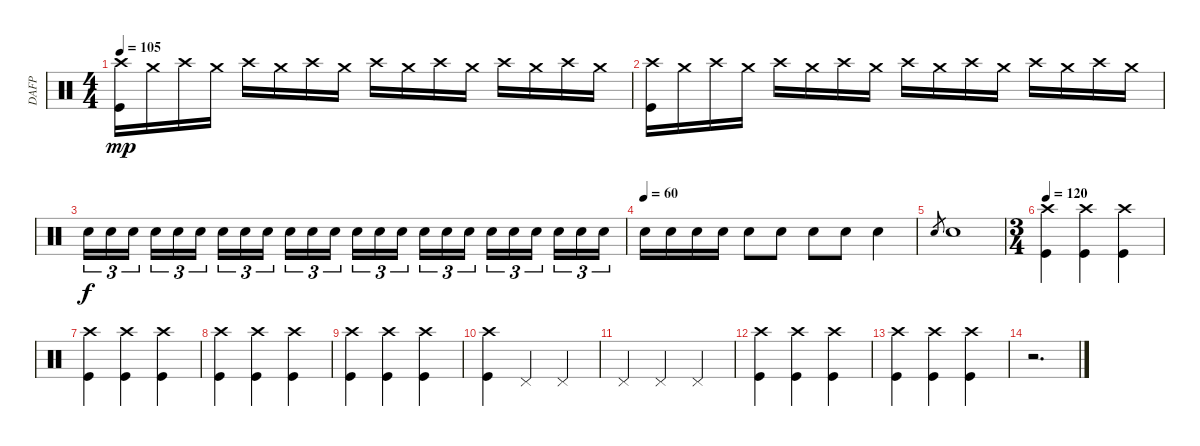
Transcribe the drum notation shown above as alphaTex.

\track ("DAFP" "DAFP") {instrument percussion}
\staff {score}
\articulation defaults
\ts (4 4)
\tempo 105
\clef neutral
\ks c
("Kick (hit)" "Crash high (hit)").16{dy mp} "Crash medium (hit)".16 "Crash high (hit)".16 "Crash medium (hit)".16 "Crash high (hit)".16 "Crash medium (hit)".16 "Crash high (hit)".16 "Crash medium (hit)".16 "Crash high (hit)".16 "Crash medium (hit)".16 "Crash high (hit)".16 "Crash medium (hit)".16 "Crash high (hit)".16 "Crash medium (hit)".16 "Crash high (hit)".16 "Crash medium (hit)".16 |
("Kick (hit)" "Crash high (hit)").16 "Crash medium (hit)".16 "Crash high (hit)".16 "Crash medium (hit)".16 "Crash high (hit)".16 "Crash medium (hit)".16 "Crash high (hit)".16 "Crash medium (hit)".16 "Crash high (hit)".16 "Crash medium (hit)".16 "Crash high (hit)".16 "Crash medium (hit)".16 "Crash high (hit)".16 "Crash medium (hit)".16 "Crash high (hit)".16 "Crash medium (hit)".16 |
"Snare (hit) 2".16{tu (3 2) dy f} "Snare (hit) 2".16{tu (3 2)} "Snare (hit) 2".16{tu (3 2) beam splitsecondary} "Snare (hit) 2".16{tu (3 2)} "Snare (hit) 2".16{tu (3 2)} "Snare (hit) 2".16{tu (3 2)} "Snare (hit) 2".16{tu (3 2)} "Snare (hit) 2".16{tu (3 2)} "Snare (hit) 2".16{tu (3 2) beam splitsecondary} "Snare (hit) 2".16{tu (3 2)} "Snare (hit) 2".16{tu (3 2)} "Snare (hit) 2".16{tu (3 2)} "Snare (hit) 2".16{tu (3 2)} "Snare (hit) 2".16{tu (3 2)} "Snare (hit) 2".16{tu (3 2) beam splitsecondary} "Snare (hit) 2".16{tu (3 2)} "Snare (hit) 2".16{tu (3 2)} "Snare (hit) 2".16{tu (3 2)} "Snare (hit) 2".16{tu (3 2)} "Snare (hit) 2".16{tu (3 2)} "Snare (hit) 2".16{tu (3 2) beam splitsecondary} "Snare (hit) 2".16{tu (3 2)} "Snare (hit) 2".16{tu (3 2)} "Snare (hit) 2".16{tu (3 2)} |
\tempo (60)
"Snare (hit) 2".16 "Snare (hit) 2".16 "Snare (hit) 2".16 "Snare (hit) 2".16 "Snare (hit) 2".8 "Snare (hit) 2".8 "Snare (hit) 2".8 "Snare (hit) 2".8 "Snare (hit) 2".4 |
"Snare (hit) 2".8{gr} "Snare (hit) 2".1 |
\ts (3 4)
\tempo 120
("Crash high (hit)" "Kick (hit)").4 ("Kick (hit)" "Crash high (hit)").4 ("Kick (hit)" "Crash high (hit)").4 |
("Crash high (hit)" "Kick (hit)").4 ("Kick (hit)" "Crash high (hit)").4 ("Kick (hit)" "Crash high (hit)").4 |
("Crash high (hit)" "Kick (hit)").4 ("Kick (hit)" "Crash high (hit)").4 ("Kick (hit)" "Crash high (hit)").4 |
("Crash high (hit)" "Kick (hit)").4 ("Kick (hit)" "Crash high (hit)").4 ("Kick (hit)" "Crash high (hit)").4 |
("Crash high (hit)" "Kick (hit)").4 "Pedal Hi-Hat (hit)".4 "Pedal Hi-Hat (hit)".4 |
"Pedal Hi-Hat (hit)".4 "Pedal Hi-Hat (hit)".4 "Pedal Hi-Hat (hit)".4 |
("Crash high (hit)" "Kick (hit)").4 ("Kick (hit)" "Crash high (hit)").4 ("Kick (hit)" "Crash high (hit)").4 |
("Crash high (hit)" "Kick (hit)").4 ("Kick (hit)" "Crash high (hit)").4 ("Kick (hit)" "Crash high (hit)").4 |
r.2{d}
